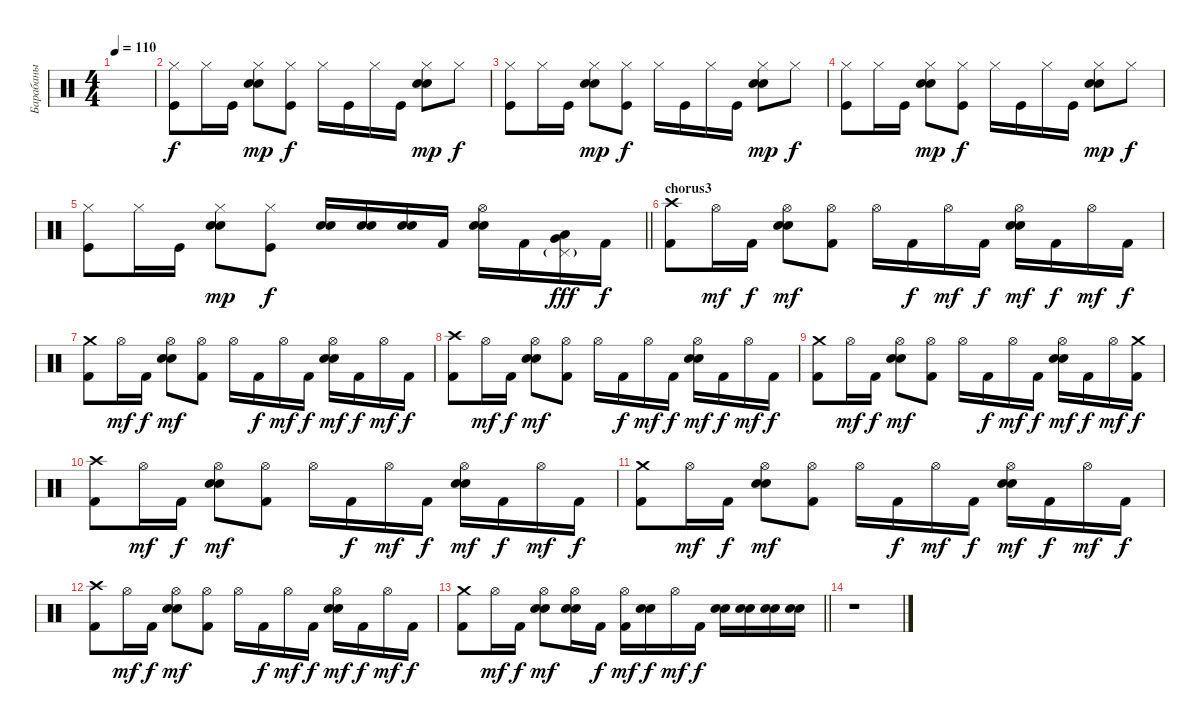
\track ("Барабаны" "Барабаны") {instrument percussion}
\staff {score}
\articulation defaults
\ts (4 4)
\tempo 110
\clef neutral
\ks c
|
("Hi-Hat (closed)" "Kick (hit)").8 "Hi-Hat (closed)".16 "Kick (hit)".16 ("Hi-Hat (closed)" "Electric Snare (hit)" "Snare (hit) 2").8{dy mp} ("Hi-Hat (closed)" "Kick (hit)").8{dy f} "Hi-Hat (closed)".16 "Kick (hit)".16 "Hi-Hat (closed)".16 "Kick (hit)".16 ("Hi-Hat (closed)" "Electric Snare (hit)" "Snare (hit) 2").8{dy mp} "Hi-Hat (closed)".8{dy f} |
("Hi-Hat (closed)" "Kick (hit)").8 "Hi-Hat (closed)".16 "Kick (hit)".16 ("Hi-Hat (closed)" "Electric Snare (hit)" "Snare (hit) 2").8{dy mp} ("Hi-Hat (closed)" "Kick (hit)").8{dy f} "Hi-Hat (closed)".16 "Kick (hit)".16 "Hi-Hat (closed)".16 "Kick (hit)".16 ("Hi-Hat (closed)" "Electric Snare (hit)" "Snare (hit) 2").8{dy mp} "Hi-Hat (closed)".8{dy f} |
("Hi-Hat (closed)" "Kick (hit)").8 "Hi-Hat (closed)".16 "Kick (hit)".16 ("Hi-Hat (closed)" "Electric Snare (hit)" "Snare (hit) 2").8{dy mp} ("Hi-Hat (closed)" "Kick (hit)").8{dy f} "Hi-Hat (closed)".16 "Kick (hit)".16 "Hi-Hat (closed)".16 "Kick (hit)".16 ("Hi-Hat (closed)" "Electric Snare (hit)" "Snare (hit) 2").8{dy mp} "Hi-Hat (closed)".8{dy f} |
\barLineRight lightlight
("Hi-Hat (closed)" "Kick (hit)").8 "Hi-Hat (closed)".16 "Kick (hit)".16 ("Hi-Hat (closed)" "Electric Snare (hit)" "Snare (hit) 2").8{dy mp} ("Hi-Hat (closed)" "Kick (hit)").8{dy f} ("Electric Snare (hit)" "Snare (hit) 2").16 ("Electric Snare (hit)" "Snare (hit) 2").16 ("Electric Snare (hit)" "Snare (hit) 2").16 "Kick (hit) 2".16 ("Hi-Hat (open)" "Electric Snare (hit)" "Snare (hit) 2").16 "Kick (hit) 2".16 ("Pedal Hi-Hat (hit)"{g} "Low Floor Tom (hit)" "Very Low Tom (hit)").16{dy fff} "Kick (hit) 2".16{dy f} |
\section ("" "chorus3")
("Crash high (hit)" "Kick (hit) 2").8 "Hi-Hat (open)".16{dy mf} "Kick (hit) 2".16{dy f} ("Hi-Hat (open)" "Electric Snare (hit)" "Snare (hit) 2").8{dy mf} ("Hi-Hat (open)" "Kick (hit) 2").8 "Hi-Hat (open)".16 "Kick (hit) 2".16{dy f} "Hi-Hat (open)".16{dy mf} "Kick (hit) 2".16{dy f} ("Hi-Hat (open)" "Electric Snare (hit)" "Snare (hit) 2").16{dy mf} "Kick (hit) 2".16{dy f} "Hi-Hat (open)".16{dy mf} "Kick (hit) 2".16{dy f} |
("Crash medium (hit)" "Kick (hit) 2").8 "Hi-Hat (open)".16{dy mf} "Kick (hit) 2".16{dy f} ("Hi-Hat (open)" "Electric Snare (hit)" "Snare (hit) 2").8{dy mf} ("Hi-Hat (open)" "Kick (hit) 2").8 "Hi-Hat (open)".16 "Kick (hit) 2".16{dy f} "Hi-Hat (open)".16{dy mf} "Kick (hit) 2".16{dy f} ("Hi-Hat (open)" "Electric Snare (hit)" "Snare (hit) 2").16{dy mf} "Kick (hit) 2".16{dy f} "Hi-Hat (open)".16{dy mf} "Kick (hit) 2".16{dy f} |
("Crash high (hit)" "Kick (hit) 2").8 "Hi-Hat (open)".16{dy mf} "Kick (hit) 2".16{dy f} ("Hi-Hat (open)" "Electric Snare (hit)" "Snare (hit) 2").8{dy mf} ("Hi-Hat (open)" "Kick (hit) 2").8 "Hi-Hat (open)".16 "Kick (hit) 2".16{dy f} "Hi-Hat (open)".16{dy mf} "Kick (hit) 2".16{dy f} ("Hi-Hat (open)" "Electric Snare (hit)" "Snare (hit) 2").16{dy mf} "Kick (hit) 2".16{dy f} "Hi-Hat (open)".16{dy mf} "Kick (hit) 2".16{dy f} |
("Crash medium (hit)" "Kick (hit) 2").8 "Hi-Hat (open)".16{dy mf} "Kick (hit) 2".16{dy f} ("Hi-Hat (open)" "Electric Snare (hit)" "Snare (hit) 2").8{dy mf} ("Hi-Hat (open)" "Kick (hit) 2").8 "Hi-Hat (open)".16 "Kick (hit) 2".16{dy f} "Hi-Hat (open)".16{dy mf} "Kick (hit) 2".16{dy f} ("Hi-Hat (open)" "Electric Snare (hit)" "Snare (hit) 2").16{dy mf} "Kick (hit) 2".16{dy f} "Hi-Hat (open)".16{dy mf} ("Crash medium (hit)" "Kick (hit) 2").16{dy f} |
("Crash high (hit)" "Kick (hit) 2").8 "Hi-Hat (open)".16{dy mf} "Kick (hit) 2".16{dy f} ("Hi-Hat (open)" "Electric Snare (hit)" "Snare (hit) 2").8{dy mf} ("Hi-Hat (open)" "Kick (hit) 2").8 "Hi-Hat (open)".16 "Kick (hit) 2".16{dy f} "Hi-Hat (open)".16{dy mf} "Kick (hit) 2".16{dy f} ("Hi-Hat (open)" "Electric Snare (hit)" "Snare (hit) 2").16{dy mf} "Kick (hit) 2".16{dy f} "Hi-Hat (open)".16{dy mf} "Kick (hit) 2".16{dy f} |
("Crash medium (hit)" "Kick (hit) 2").8 "Hi-Hat (open)".16{dy mf} "Kick (hit) 2".16{dy f} ("Hi-Hat (open)" "Electric Snare (hit)" "Snare (hit) 2").8{dy mf} ("Hi-Hat (open)" "Kick (hit) 2").8 "Hi-Hat (open)".16 "Kick (hit) 2".16{dy f} "Hi-Hat (open)".16{dy mf} "Kick (hit) 2".16{dy f} ("Hi-Hat (open)" "Electric Snare (hit)" "Snare (hit) 2").16{dy mf} "Kick (hit) 2".16{dy f} "Hi-Hat (open)".16{dy mf} "Kick (hit) 2".16{dy f} |
("Crash high (hit)" "Kick (hit) 2").8 "Hi-Hat (open)".16{dy mf} "Kick (hit) 2".16{dy f} ("Hi-Hat (open)" "Electric Snare (hit)" "Snare (hit) 2").8{dy mf} ("Hi-Hat (open)" "Kick (hit) 2").8 "Hi-Hat (open)".16 "Kick (hit) 2".16{dy f} "Hi-Hat (open)".16{dy mf} "Kick (hit) 2".16{dy f} ("Hi-Hat (open)" "Electric Snare (hit)" "Snare (hit) 2").16{dy mf} "Kick (hit) 2".16{dy f} "Hi-Hat (open)".16{dy mf} "Kick (hit) 2".16{dy f} |
\barLineRight lightlight
("Crash medium (hit)" "Kick (hit) 2").8 "Hi-Hat (open)".16{dy mf} "Kick (hit) 2".16{dy f} ("Hi-Hat (open)" "Electric Snare (hit)" "Snare (hit) 2").8{dy mf} ("Hi-Hat (open)" "Electric Snare (hit)" "Snare (hit) 2").16 "Kick (hit) 2".16{dy f} ("Hi-Hat (open)" "Kick (hit) 2").16{dy mf} ("Electric Snare (hit)" "Snare (hit) 2").16{dy f} "Hi-Hat (open)".16{dy mf} "Kick (hit) 2".16{dy f} ("Electric Snare (hit)" "Snare (hit) 2").16 ("Electric Snare (hit)" "Snare (hit) 2").16 ("Electric Snare (hit)" "Snare (hit) 2").16 ("Electric Snare (hit)" "Snare (hit) 2").16 |
r.1
